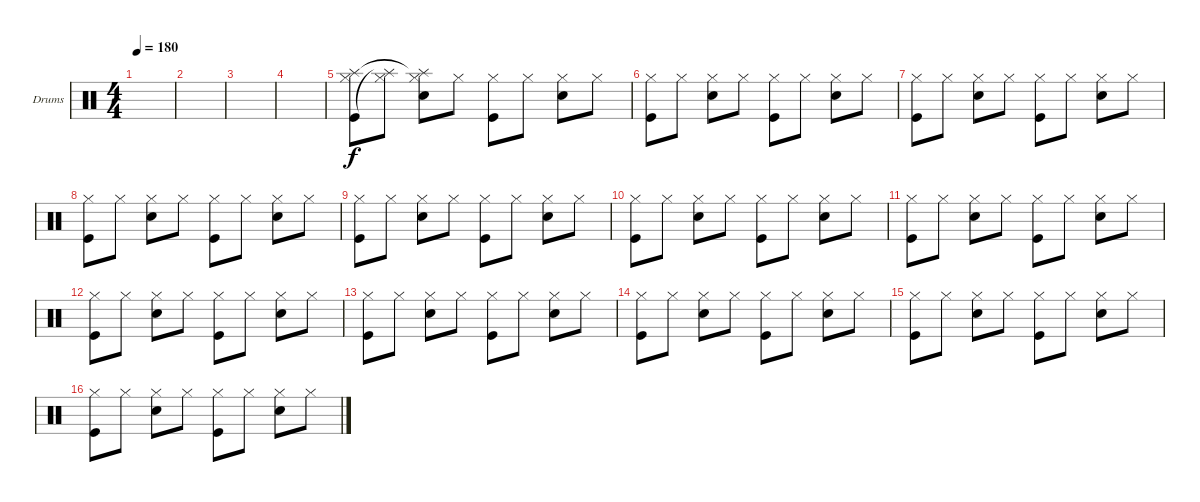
\bracketExtendMode groupsimilarinstruments
\firstSystemTrackNameOrientation horizontal
\otherSystemsTrackNameOrientation horizontal
\track ("Drumkit" "Drums") {instrument percussion}
\staff {score}
\articulation defaults
\ts (4 4)
\tempo 180
\clef neutral
\ks c
|
|
|
|
("Hi-Hat (closed)" "Kick (hit)" "Splash (hit)").8 ("Hi-Hat (closed)" "Splash (hit)"{t}).8 ("Hi-Hat (closed)" "Snare (hit) 2" "Splash (hit)"{t}).8 "Hi-Hat (closed)".8 ("Hi-Hat (closed)" "Kick (hit)").8 "Hi-Hat (closed)".8 ("Hi-Hat (closed)" "Snare (hit) 2").8 "Hi-Hat (closed)".8 |
("Hi-Hat (closed)" "Kick (hit)").8 "Hi-Hat (closed)".8 ("Hi-Hat (closed)" "Snare (hit) 2").8 "Hi-Hat (closed)".8 ("Hi-Hat (closed)" "Kick (hit)").8 "Hi-Hat (closed)".8 ("Hi-Hat (closed)" "Snare (hit) 2").8 "Hi-Hat (closed)".8 |
("Hi-Hat (closed)" "Kick (hit)").8 "Hi-Hat (closed)".8 ("Hi-Hat (closed)" "Snare (hit) 2").8 "Hi-Hat (closed)".8 ("Hi-Hat (closed)" "Kick (hit)").8 "Hi-Hat (closed)".8 ("Hi-Hat (closed)" "Snare (hit) 2").8 "Hi-Hat (closed)".8 |
("Hi-Hat (closed)" "Kick (hit)").8 "Hi-Hat (closed)".8 ("Hi-Hat (closed)" "Snare (hit) 2").8 "Hi-Hat (closed)".8 ("Hi-Hat (closed)" "Kick (hit)").8 "Hi-Hat (closed)".8 ("Hi-Hat (closed)" "Snare (hit) 2").8 "Hi-Hat (closed)".8 |
("Hi-Hat (closed)" "Kick (hit)").8 "Hi-Hat (closed)".8 ("Hi-Hat (closed)" "Snare (hit) 2").8 "Hi-Hat (closed)".8 ("Hi-Hat (closed)" "Kick (hit)").8 "Hi-Hat (closed)".8 ("Hi-Hat (closed)" "Snare (hit) 2").8 "Hi-Hat (closed)".8 |
("Hi-Hat (closed)" "Kick (hit)").8 "Hi-Hat (closed)".8 ("Hi-Hat (closed)" "Snare (hit) 2").8 "Hi-Hat (closed)".8 ("Hi-Hat (closed)" "Kick (hit)").8 "Hi-Hat (closed)".8 ("Hi-Hat (closed)" "Snare (hit) 2").8 "Hi-Hat (closed)".8 |
("Hi-Hat (closed)" "Kick (hit)").8 "Hi-Hat (closed)".8 ("Hi-Hat (closed)" "Snare (hit) 2").8 "Hi-Hat (closed)".8 ("Hi-Hat (closed)" "Kick (hit)").8 "Hi-Hat (closed)".8 ("Hi-Hat (closed)" "Snare (hit) 2").8 "Hi-Hat (closed)".8 |
("Hi-Hat (closed)" "Kick (hit)").8 "Hi-Hat (closed)".8 ("Hi-Hat (closed)" "Snare (hit) 2").8 "Hi-Hat (closed)".8 ("Hi-Hat (closed)" "Kick (hit)").8 "Hi-Hat (closed)".8 ("Hi-Hat (closed)" "Snare (hit) 2").8 "Hi-Hat (closed)".8 |
("Hi-Hat (closed)" "Kick (hit)").8 "Hi-Hat (closed)".8 ("Hi-Hat (closed)" "Snare (hit) 2").8 "Hi-Hat (closed)".8 ("Hi-Hat (closed)" "Kick (hit)").8 "Hi-Hat (closed)".8 ("Hi-Hat (closed)" "Snare (hit) 2").8 "Hi-Hat (closed)".8 |
("Hi-Hat (closed)" "Kick (hit)").8 "Hi-Hat (closed)".8 ("Hi-Hat (closed)" "Snare (hit) 2").8 "Hi-Hat (closed)".8 ("Hi-Hat (closed)" "Kick (hit)").8 "Hi-Hat (closed)".8 ("Hi-Hat (closed)" "Snare (hit) 2").8 "Hi-Hat (closed)".8 |
("Hi-Hat (closed)" "Kick (hit)").8 "Hi-Hat (closed)".8 ("Hi-Hat (closed)" "Snare (hit) 2").8 "Hi-Hat (closed)".8 ("Hi-Hat (closed)" "Kick (hit)").8 "Hi-Hat (closed)".8 ("Hi-Hat (closed)" "Snare (hit) 2").8 "Hi-Hat (closed)".8 |
("Hi-Hat (closed)" "Kick (hit)").8 "Hi-Hat (closed)".8 ("Hi-Hat (closed)" "Snare (hit) 2").8 "Hi-Hat (closed)".8 ("Hi-Hat (closed)" "Kick (hit)").8 "Hi-Hat (closed)".8 ("Hi-Hat (closed)" "Snare (hit) 2").8 "Hi-Hat (closed)".8
